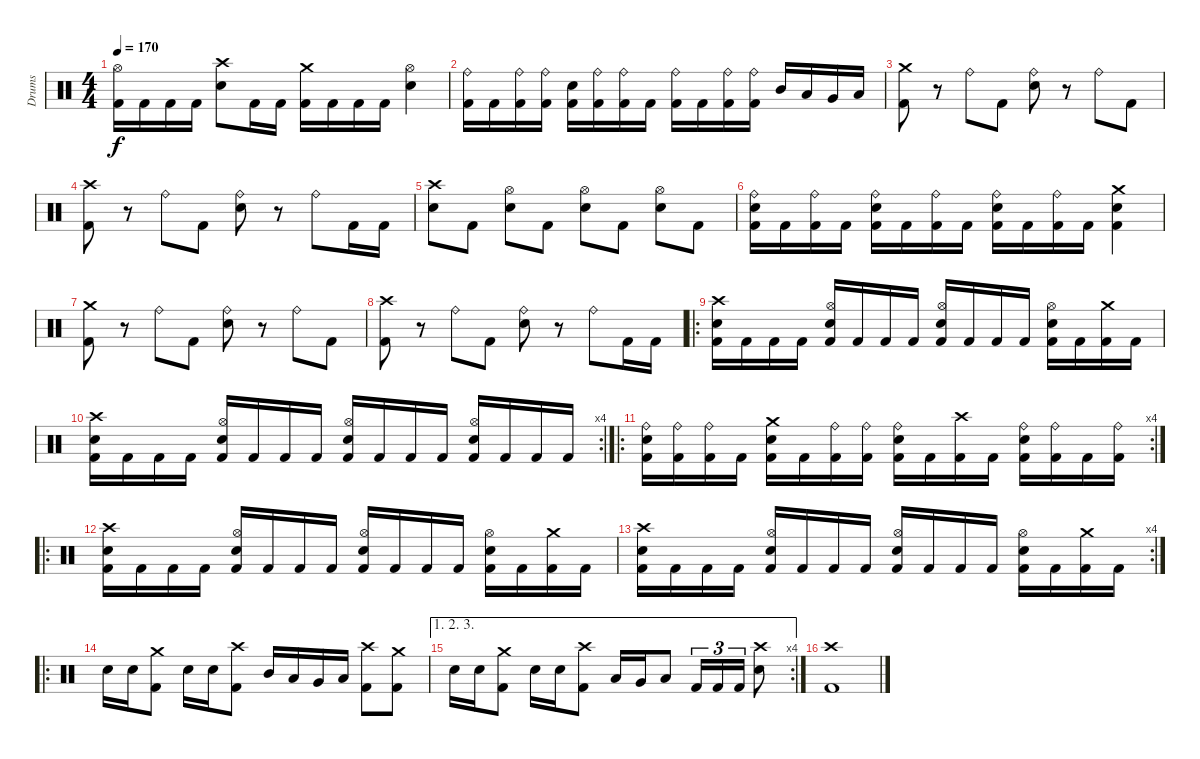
\track ("Drums" "Drums") {instrument percussion}
\staff {score}
\articulation defaults
\ts (4 4)
\tempo 170
\clef neutral
\ks c
("Kick (hit) 2" "Hi-Hat (open)").16{dy f} "Kick (hit) 2".16 "Kick (hit) 2".16 "Kick (hit) 2".16 ("Snare (hit) 2" "Crash high (hit)").8 "Kick (hit) 2".16 "Kick (hit) 2".16 ("Kick (hit) 2" "Crash medium (hit)").16 "Kick (hit) 2".16 "Kick (hit) 2".16 "Kick (hit) 2".16 ("Snare (hit) 2" "Hi-Hat (open)").4 |
("Kick (hit) 2" "Ride (bell)").16 "Kick (hit) 2".16 ("Kick (hit) 2" "Ride (bell)").16 ("Kick (hit) 2" "Ride (bell)").16 ("Kick (hit) 2" "Snare (hit) 2").16 ("Kick (hit) 2" "Ride (bell)").16 ("Kick (hit) 2" "Ride (bell)").16 "Kick (hit) 2".16 ("Kick (hit) 2" "Ride (bell)").16 "Kick (hit) 2".16 ("Kick (hit) 2" "Ride (bell)").16 ("Kick (hit) 2" "Ride (bell)").16 "Mid Tom (hit)".16 "Low Tom (hit)".16 "Very Low Tom (hit)".16 "Low Floor Tom (hit)".16 |
("Kick (hit) 2" "Crash medium (hit)").8 r.8 "Ride (bell)".8 "Kick (hit) 2".8 ("Snare (hit) 2" "Ride (bell)").8 r.8 "Ride (bell)".8 "Kick (hit) 2".8 |
("Kick (hit) 2" "Crash high (hit)").8 r.8 "Ride (bell)".8 "Kick (hit) 2".8 ("Snare (hit) 2" "Ride (bell)").8 r.8 "Ride (bell)".8 "Kick (hit) 2".16 "Kick (hit) 2".16 |
("Snare (hit) 2" "Crash high (hit)").8 "Kick (hit) 2".8 ("Snare (hit) 2" "Hi-Hat (open)").8 "Kick (hit) 2".8 ("Snare (hit) 2" "Hi-Hat (open)").8 "Kick (hit) 2".8 ("Snare (hit) 2" "Hi-Hat (open)").8 "Kick (hit) 2".8 |
("Kick (hit) 2" "Snare (hit) 2" "Ride (bell)").16 "Kick (hit) 2".16 ("Kick (hit) 2" "Ride (bell)").16 "Kick (hit) 2".16 ("Kick (hit) 2" "Snare (hit) 2" "Ride (bell)").16 "Kick (hit) 2".16 ("Kick (hit) 2" "Ride (bell)").16 "Kick (hit) 2".16 ("Kick (hit) 2" "Snare (hit) 2" "Ride (bell)").16 "Kick (hit) 2".16 ("Kick (hit) 2" "Ride (bell)").16 "Kick (hit) 2".16 ("Kick (hit) 2" "Snare (hit) 2" "Crash medium (hit)").4 |
("Kick (hit) 2" "Crash medium (hit)").8 r.8 "Ride (bell)".8 "Kick (hit) 2".8 ("Snare (hit) 2" "Ride (bell)").8 r.8 "Ride (bell)".8 "Kick (hit) 2".8 |
("Kick (hit) 2" "Crash high (hit)").8 r.8 "Ride (bell)".8 "Kick (hit) 2".8 ("Snare (hit) 2" "Ride (bell)").8 r.8 "Ride (bell)".8 "Kick (hit) 2".16 "Kick (hit) 2".16 |
\ro
("Kick (hit) 2" "Snare (hit) 2" "Crash high (hit)").16 "Kick (hit) 2".16 "Kick (hit) 2".16 "Kick (hit) 2".16 ("Kick (hit) 2" "Snare (hit) 2" "Hi-Hat (open)").16 "Kick (hit) 2".16 "Kick (hit) 2".16 "Kick (hit) 2".16 ("Kick (hit) 2" "Snare (hit) 2" "Hi-Hat (open)").16 "Kick (hit) 2".16 "Kick (hit) 2".16 "Kick (hit) 2".16 ("Kick (hit) 2" "Snare (hit) 2" "Hi-Hat (open)").16 "Kick (hit) 2".16 ("Kick (hit) 2" "Crash medium (hit)").16 "Kick (hit) 2".16 |
\rc 4
("Kick (hit) 2" "Snare (hit) 2" "Crash high (hit)").16 "Kick (hit) 2".16 "Kick (hit) 2".16 "Kick (hit) 2".16 ("Kick (hit) 2" "Snare (hit) 2" "Hi-Hat (open)").16 "Kick (hit) 2".16 "Kick (hit) 2".16 "Kick (hit) 2".16 ("Kick (hit) 2" "Snare (hit) 2" "Hi-Hat (open)").16 "Kick (hit) 2".16 "Kick (hit) 2".16 "Kick (hit) 2".16 ("Kick (hit) 2" "Snare (hit) 2" "Hi-Hat (open)").16 "Kick (hit) 2".16 "Kick (hit) 2".16 "Kick (hit) 2".16 |
\ro
\rc 4
("Kick (hit) 2" "Snare (hit) 2" "Ride (bell)").16 ("Kick (hit) 2" "Ride (bell)").16 ("Kick (hit) 2" "Ride (bell)").16 "Kick (hit) 2".16 ("Kick (hit) 2" "Snare (hit) 2" "Crash medium (hit)").16 "Kick (hit) 2".16 ("Kick (hit) 2" "Ride (bell)").16 ("Kick (hit) 2" "Ride (bell)").16 ("Kick (hit) 2" "Snare (hit) 2" "Ride (bell)").16 "Kick (hit) 2".16 ("Kick (hit) 2" "Crash high (hit)").16 "Kick (hit) 2".16 ("Kick (hit) 2" "Snare (hit) 2" "Ride (bell)").16 ("Kick (hit) 2" "Ride (bell)").16 "Kick (hit) 2".16 ("Kick (hit) 2" "Ride (bell)").16 |
\ro
("Kick (hit) 2" "Snare (hit) 2" "Crash high (hit)").16 "Kick (hit) 2".16 "Kick (hit) 2".16 "Kick (hit) 2".16 ("Kick (hit) 2" "Snare (hit) 2" "Hi-Hat (open)").16 "Kick (hit) 2".16 "Kick (hit) 2".16 "Kick (hit) 2".16 ("Kick (hit) 2" "Snare (hit) 2" "Hi-Hat (open)").16 "Kick (hit) 2".16 "Kick (hit) 2".16 "Kick (hit) 2".16 ("Kick (hit) 2" "Snare (hit) 2" "Hi-Hat (open)").16 "Kick (hit) 2".16 ("Kick (hit) 2" "Crash medium (hit)").16 "Kick (hit) 2".16 |
\rc 4
("Kick (hit) 2" "Snare (hit) 2" "Crash high (hit)").16 "Kick (hit) 2".16 "Kick (hit) 2".16 "Kick (hit) 2".16 ("Kick (hit) 2" "Snare (hit) 2" "Hi-Hat (open)").16 "Kick (hit) 2".16 "Kick (hit) 2".16 "Kick (hit) 2".16 ("Kick (hit) 2" "Snare (hit) 2" "Hi-Hat (open)").16 "Kick (hit) 2".16 "Kick (hit) 2".16 "Kick (hit) 2".16 ("Kick (hit) 2" "Snare (hit) 2" "Hi-Hat (open)").16 "Kick (hit) 2".16 ("Kick (hit) 2" "Crash medium (hit)").16 "Kick (hit) 2".16 |
\ro "Snare (hit) 2".16 "Snare (hit) 2".16
("Kick (hit) 2" "Crash medium (hit)").8 "Snare (hit) 2".16 "Snare (hit) 2".16 ("Kick (hit) 2" "Crash high (hit)").8 "Mid Tom (hit)".16 "Low Tom (hit)".16 "Very Low Tom (hit)".16 "Low Floor Tom (hit)".16 ("Kick (hit) 2" "Crash high (hit)").8 ("Kick (hit) 2" "Crash medium (hit)").8 |
\ae (1 2 3)
\rc 4 "Snare (hit) 2".16 "Snare (hit) 2".16
("Kick (hit) 2" "Crash medium (hit)").8 "Snare (hit) 2".16 "Snare (hit) 2".16 ("Kick (hit) 2" "Crash high (hit)").8 "Low Tom (hit)".16 "Very Low Tom (hit)".16 "Low Floor Tom (hit)".8 "Kick (hit) 2".16{tu (3 2)} "Kick (hit) 2".16{tu (3 2)} "Kick (hit) 2".16{tu (3 2)} ("Snare (hit) 2" "Crash high (hit)").8 |
("Kick (hit) 2" "Crash high (hit)").1
